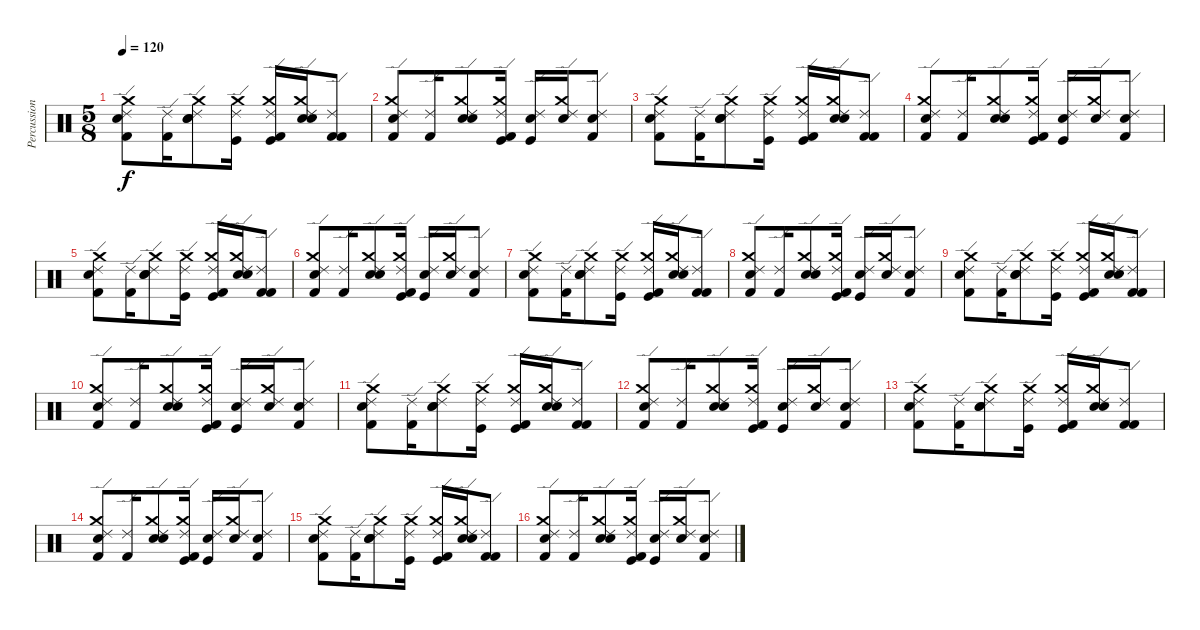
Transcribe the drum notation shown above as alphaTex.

\track ("Percussion" "Percussion") {instrument percussion}
\staff {score}
\articulation defaults
\ts (5 8)
\tempo 120
\clef neutral
\ks c
("Electric Snare (hit)" "Kick (hit) 2" "Crash medium (hit)" "Ride (edge) 2").8{dy f} ("Kick (hit) 2" "Ride (edge) 2").16 ("Electric Snare (hit)" "Crash medium (hit)" "Electric Snare (hit)" "Ride (edge) 2").8 ("Crash medium (hit)" "Kick (hit)" "Ride (edge) 2").16 ("Crash medium (hit)" "Kick (hit) 2" "Kick (hit)" "Ride (edge) 2").16 ("Electric Snare (hit)" "Crash medium (hit)" "Electric Snare (hit)" "Ride (edge) 2").16 ("Kick (hit) 2" "Kick (hit) 2" "Ride (edge) 2").8 |
("Electric Snare (hit)" "Kick (hit) 2" "Crash medium (hit)" "Ride (edge) 2").8 ("Kick (hit) 2" "Ride (edge) 2").16 ("Electric Snare (hit)" "Crash medium (hit)" "Electric Snare (hit)" "Ride (edge) 2").8 ("Crash medium (hit)" "Kick (hit) 2" "Kick (hit)" "Ride (edge) 2").16 ("Electric Snare (hit)" "Kick (hit)" "Ride (edge) 2").16 ("Crash medium (hit)" "Electric Snare (hit)" "Ride (edge) 2").16 ("Electric Snare (hit)" "Kick (hit) 2" "Ride (edge) 2").8 |
("Electric Snare (hit)" "Kick (hit) 2" "Crash medium (hit)" "Ride (edge) 2").8 ("Kick (hit) 2" "Ride (edge) 2").16 ("Electric Snare (hit)" "Crash medium (hit)" "Electric Snare (hit)" "Ride (edge) 2").8 ("Crash medium (hit)" "Kick (hit)" "Ride (edge) 2").16 ("Crash medium (hit)" "Kick (hit) 2" "Kick (hit)" "Ride (edge) 2").16 ("Electric Snare (hit)" "Crash medium (hit)" "Electric Snare (hit)" "Ride (edge) 2").16 ("Kick (hit) 2" "Kick (hit) 2" "Ride (edge) 2").8 |
("Electric Snare (hit)" "Kick (hit) 2" "Crash medium (hit)" "Ride (edge) 2").8 ("Kick (hit) 2" "Ride (edge) 2").16 ("Electric Snare (hit)" "Crash medium (hit)" "Electric Snare (hit)" "Ride (edge) 2").8 ("Crash medium (hit)" "Kick (hit) 2" "Kick (hit)" "Ride (edge) 2").16 ("Electric Snare (hit)" "Kick (hit)" "Ride (edge) 2").16 ("Crash medium (hit)" "Electric Snare (hit)" "Ride (edge) 2").16 ("Electric Snare (hit)" "Kick (hit) 2" "Ride (edge) 2").8 |
("Electric Snare (hit)" "Kick (hit) 2" "Crash medium (hit)" "Ride (edge) 2").8 ("Kick (hit) 2" "Ride (edge) 2").16 ("Electric Snare (hit)" "Crash medium (hit)" "Electric Snare (hit)" "Ride (edge) 2").8 ("Crash medium (hit)" "Kick (hit)" "Ride (edge) 2").16 ("Crash medium (hit)" "Kick (hit) 2" "Kick (hit)" "Ride (edge) 2").16 ("Electric Snare (hit)" "Crash medium (hit)" "Electric Snare (hit)" "Ride (edge) 2").16 ("Kick (hit) 2" "Kick (hit) 2" "Ride (edge) 2").8 |
("Electric Snare (hit)" "Kick (hit) 2" "Crash medium (hit)" "Ride (edge) 2").8 ("Kick (hit) 2" "Ride (edge) 2").16 ("Electric Snare (hit)" "Crash medium (hit)" "Electric Snare (hit)" "Ride (edge) 2").8 ("Crash medium (hit)" "Kick (hit) 2" "Kick (hit)" "Ride (edge) 2").16 ("Electric Snare (hit)" "Kick (hit)" "Ride (edge) 2").16 ("Crash medium (hit)" "Electric Snare (hit)" "Ride (edge) 2").16 ("Electric Snare (hit)" "Kick (hit) 2" "Ride (edge) 2").8 |
("Electric Snare (hit)" "Kick (hit) 2" "Crash medium (hit)" "Ride (edge) 2").8 ("Kick (hit) 2" "Ride (edge) 2").16 ("Electric Snare (hit)" "Crash medium (hit)" "Electric Snare (hit)" "Ride (edge) 2").8 ("Crash medium (hit)" "Kick (hit)" "Ride (edge) 2").16 ("Crash medium (hit)" "Kick (hit) 2" "Kick (hit)" "Ride (edge) 2").16 ("Electric Snare (hit)" "Crash medium (hit)" "Electric Snare (hit)" "Ride (edge) 2").16 ("Kick (hit) 2" "Kick (hit) 2" "Ride (edge) 2").8 |
("Electric Snare (hit)" "Kick (hit) 2" "Crash medium (hit)" "Ride (edge) 2").8 ("Kick (hit) 2" "Ride (edge) 2").16 ("Electric Snare (hit)" "Crash medium (hit)" "Electric Snare (hit)" "Ride (edge) 2").8 ("Crash medium (hit)" "Kick (hit) 2" "Kick (hit)" "Ride (edge) 2").16 ("Electric Snare (hit)" "Kick (hit)" "Ride (edge) 2").16 ("Crash medium (hit)" "Electric Snare (hit)" "Ride (edge) 2").16 ("Electric Snare (hit)" "Kick (hit) 2" "Ride (edge) 2").8 |
("Electric Snare (hit)" "Kick (hit) 2" "Crash medium (hit)" "Ride (edge) 2").8 ("Kick (hit) 2" "Ride (edge) 2").16 ("Electric Snare (hit)" "Crash medium (hit)" "Electric Snare (hit)" "Ride (edge) 2").8 ("Crash medium (hit)" "Kick (hit)" "Ride (edge) 2").16 ("Crash medium (hit)" "Kick (hit) 2" "Kick (hit)" "Ride (edge) 2").16 ("Electric Snare (hit)" "Crash medium (hit)" "Electric Snare (hit)" "Ride (edge) 2").16 ("Kick (hit) 2" "Kick (hit) 2" "Ride (edge) 2").8 |
("Electric Snare (hit)" "Kick (hit) 2" "Crash medium (hit)" "Ride (edge) 2").8 ("Kick (hit) 2" "Ride (edge) 2").16 ("Electric Snare (hit)" "Crash medium (hit)" "Electric Snare (hit)" "Ride (edge) 2").8 ("Crash medium (hit)" "Kick (hit) 2" "Kick (hit)" "Ride (edge) 2").16 ("Electric Snare (hit)" "Kick (hit)" "Ride (edge) 2").16 ("Crash medium (hit)" "Electric Snare (hit)" "Ride (edge) 2").16 ("Electric Snare (hit)" "Kick (hit) 2" "Ride (edge) 2").8 |
("Electric Snare (hit)" "Kick (hit) 2" "Crash medium (hit)" "Ride (edge) 2").8 ("Kick (hit) 2" "Ride (edge) 2").16 ("Electric Snare (hit)" "Crash medium (hit)" "Electric Snare (hit)" "Ride (edge) 2").8 ("Crash medium (hit)" "Kick (hit)" "Ride (edge) 2").16 ("Crash medium (hit)" "Kick (hit) 2" "Kick (hit)" "Ride (edge) 2").16 ("Electric Snare (hit)" "Crash medium (hit)" "Electric Snare (hit)" "Ride (edge) 2").16 ("Kick (hit) 2" "Kick (hit) 2" "Ride (edge) 2").8 |
("Electric Snare (hit)" "Kick (hit) 2" "Crash medium (hit)" "Ride (edge) 2").8 ("Kick (hit) 2" "Ride (edge) 2").16 ("Electric Snare (hit)" "Crash medium (hit)" "Electric Snare (hit)" "Ride (edge) 2").8 ("Crash medium (hit)" "Kick (hit) 2" "Kick (hit)" "Ride (edge) 2").16 ("Electric Snare (hit)" "Kick (hit)" "Ride (edge) 2").16 ("Crash medium (hit)" "Electric Snare (hit)" "Ride (edge) 2").16 ("Electric Snare (hit)" "Kick (hit) 2" "Ride (edge) 2").8 |
("Electric Snare (hit)" "Kick (hit) 2" "Crash medium (hit)" "Ride (edge) 2").8 ("Kick (hit) 2" "Ride (edge) 2").16 ("Electric Snare (hit)" "Crash medium (hit)" "Electric Snare (hit)" "Ride (edge) 2").8 ("Crash medium (hit)" "Kick (hit)" "Ride (edge) 2").16 ("Crash medium (hit)" "Kick (hit) 2" "Kick (hit)" "Ride (edge) 2").16 ("Electric Snare (hit)" "Crash medium (hit)" "Electric Snare (hit)" "Ride (edge) 2").16 ("Kick (hit) 2" "Kick (hit) 2" "Ride (edge) 2").8 |
("Electric Snare (hit)" "Kick (hit) 2" "Crash medium (hit)" "Ride (edge) 2").8 ("Kick (hit) 2" "Ride (edge) 2").16 ("Electric Snare (hit)" "Crash medium (hit)" "Electric Snare (hit)" "Ride (edge) 2").8 ("Crash medium (hit)" "Kick (hit) 2" "Kick (hit)" "Ride (edge) 2").16 ("Electric Snare (hit)" "Kick (hit)" "Ride (edge) 2").16 ("Crash medium (hit)" "Electric Snare (hit)" "Ride (edge) 2").16 ("Electric Snare (hit)" "Kick (hit) 2" "Ride (edge) 2").8 |
("Electric Snare (hit)" "Kick (hit) 2" "Crash medium (hit)" "Ride (edge) 2").8 ("Kick (hit) 2" "Ride (edge) 2").16 ("Electric Snare (hit)" "Crash medium (hit)" "Electric Snare (hit)" "Ride (edge) 2").8 ("Crash medium (hit)" "Kick (hit)" "Ride (edge) 2").16 ("Crash medium (hit)" "Kick (hit) 2" "Kick (hit)" "Ride (edge) 2").16 ("Electric Snare (hit)" "Crash medium (hit)" "Electric Snare (hit)" "Ride (edge) 2").16 ("Kick (hit) 2" "Kick (hit) 2" "Ride (edge) 2").8 |
("Electric Snare (hit)" "Kick (hit) 2" "Crash medium (hit)" "Ride (edge) 2").8 ("Kick (hit) 2" "Ride (edge) 2").16 ("Electric Snare (hit)" "Crash medium (hit)" "Electric Snare (hit)" "Ride (edge) 2").8 ("Crash medium (hit)" "Kick (hit) 2" "Kick (hit)" "Ride (edge) 2").16 ("Electric Snare (hit)" "Kick (hit)" "Ride (edge) 2").16 ("Crash medium (hit)" "Electric Snare (hit)" "Ride (edge) 2").16 ("Electric Snare (hit)" "Kick (hit) 2" "Ride (edge) 2").8
